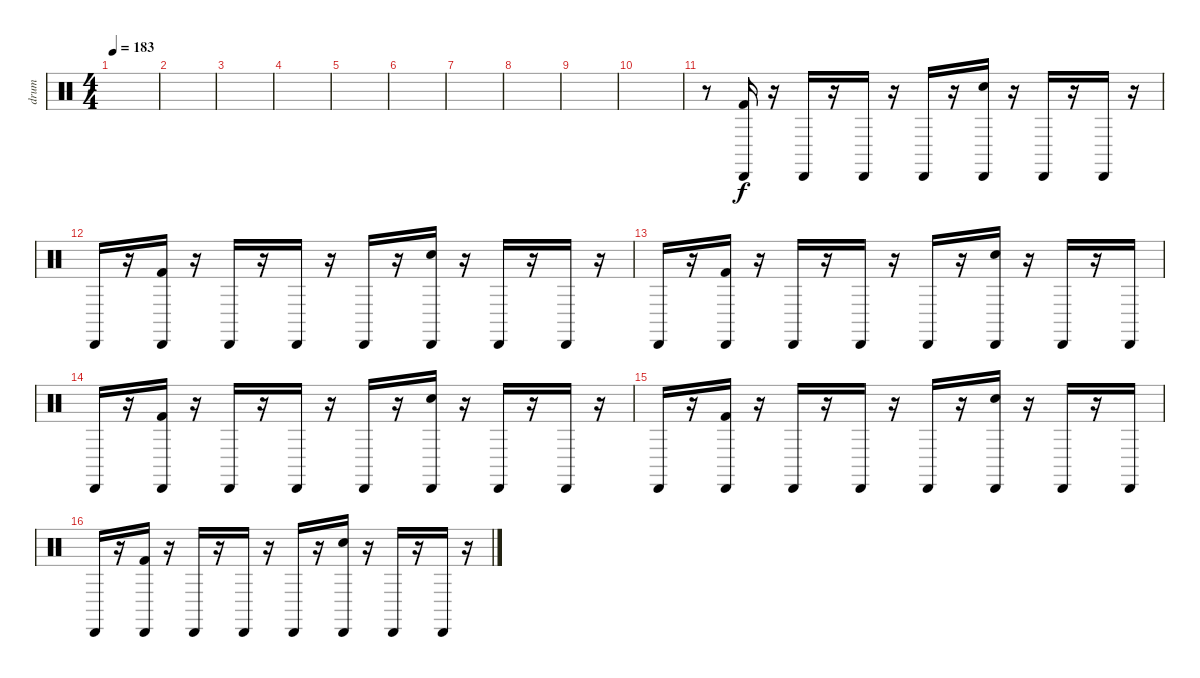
\track ("drum" "drum") {instrument percussion}
\staff {score}
\articulation defaults
\ts (4 4)
\tempo 183
\clef neutral
\ks c
|
|
|
|
|
|
|
|
|
|
r.8 ("Cabasa (hit)" "Kick (hit) 2").16 r.16 "Cabasa (hit)".16 r.16 "Cabasa (hit)".16 r.16 "Cabasa (hit)".16 r.16 ("Cabasa (hit)" "Snare (hit) 2").16 r.16 "Cabasa (hit)".16 r.16 "Cabasa (hit)".16 r.16 |
"Cabasa (hit)".16 r.16 ("Cabasa (hit)" "Kick (hit) 2").16 r.16 "Cabasa (hit)".16 r.16 "Cabasa (hit)".16 r.16 "Cabasa (hit)".16 r.16 ("Cabasa (hit)" "Snare (hit) 2").16 r.16 "Cabasa (hit)".16 r.16 "Cabasa (hit)".16 r.16 |
"Cabasa (hit)".16 r.16 ("Cabasa (hit)" "Kick (hit) 2").16 r.16 "Cabasa (hit)".16 r.16 "Cabasa (hit)".16 r.16 "Cabasa (hit)".16 r.16 ("Cabasa (hit)" "Snare (hit) 2").16 r.16 "Cabasa (hit)".16 r.16 "Cabasa (hit)".16 |
"Cabasa (hit)".16 r.16 ("Cabasa (hit)" "Kick (hit) 2").16 r.16 "Cabasa (hit)".16 r.16 "Cabasa (hit)".16 r.16 "Cabasa (hit)".16 r.16 ("Cabasa (hit)" "Snare (hit) 2").16 r.16 "Cabasa (hit)".16 r.16 "Cabasa (hit)".16 r.16 |
"Cabasa (hit)".16 r.16 ("Cabasa (hit)" "Kick (hit) 2").16 r.16 "Cabasa (hit)".16 r.16 "Cabasa (hit)".16 r.16 "Cabasa (hit)".16 r.16 ("Cabasa (hit)" "Snare (hit) 2").16 r.16 "Cabasa (hit)".16 r.16 "Cabasa (hit)".16 |
"Cabasa (hit)".16 r.16 ("Cabasa (hit)" "Kick (hit) 2").16 r.16 "Cabasa (hit)".16 r.16 "Cabasa (hit)".16 r.16 "Cabasa (hit)".16 r.16 ("Cabasa (hit)" "Snare (hit) 2").16 r.16 "Cabasa (hit)".16 r.16 "Cabasa (hit)".16 r.16
